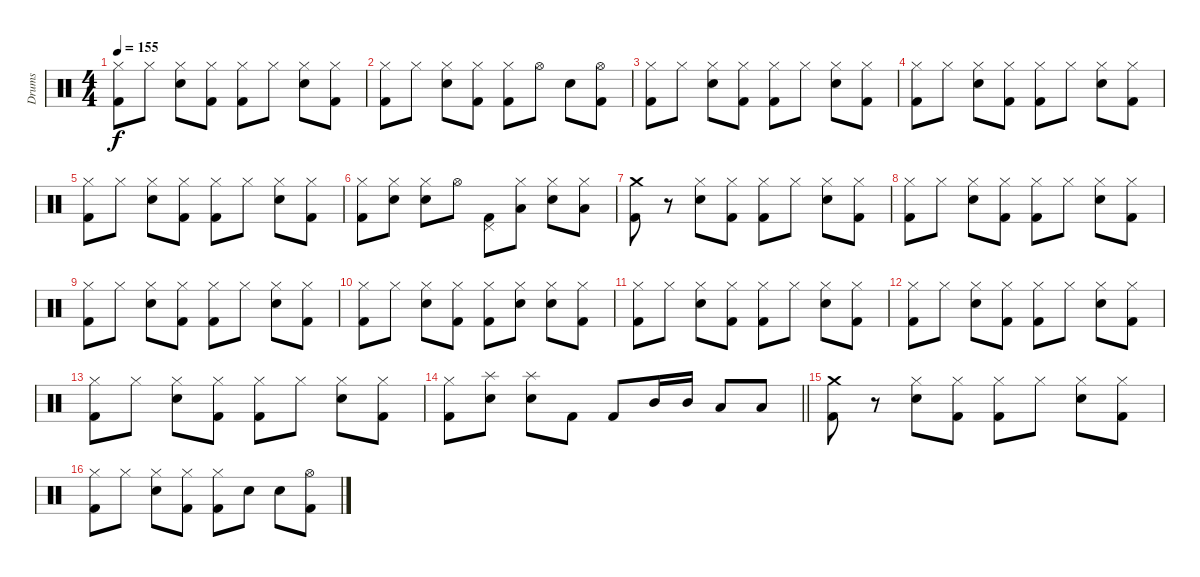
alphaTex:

\track ("Drums" "Drums") {instrument percussion}
\staff {score}
\articulation defaults
\ts (4 4)
\tempo 155
\clef neutral
\ks c
("Hi-Hat (closed)" "Kick (hit) 2").8{dy f} "Hi-Hat (closed)".8 ("Hi-Hat (closed)" "Snare (hit) 2").8 ("Hi-Hat (closed)" "Kick (hit) 2").8 ("Hi-Hat (closed)" "Kick (hit) 2").8 "Hi-Hat (closed)".8 ("Hi-Hat (closed)" "Snare (hit) 2").8 ("Hi-Hat (closed)" "Kick (hit) 2").8 |
("Hi-Hat (closed)" "Kick (hit) 2").8 "Hi-Hat (closed)".8 ("Hi-Hat (closed)" "Snare (hit) 2").8 ("Hi-Hat (closed)" "Kick (hit) 2").8 ("Hi-Hat (closed)" "Kick (hit) 2").8 "Hi-Hat (open)".8 "Snare (hit) 2".8 ("Hi-Hat (open)" "Kick (hit) 2").8 |
("Hi-Hat (closed)" "Kick (hit) 2").8 "Hi-Hat (closed)".8 ("Hi-Hat (closed)" "Snare (hit) 2").8 ("Hi-Hat (closed)" "Kick (hit) 2").8 ("Hi-Hat (closed)" "Kick (hit) 2").8 "Hi-Hat (closed)".8 ("Hi-Hat (closed)" "Snare (hit) 2").8 ("Hi-Hat (closed)" "Kick (hit) 2").8 |
("Hi-Hat (closed)" "Kick (hit) 2").8 "Hi-Hat (closed)".8 ("Hi-Hat (closed)" "Snare (hit) 2").8 ("Hi-Hat (closed)" "Kick (hit) 2").8 ("Hi-Hat (closed)" "Kick (hit) 2").8 "Hi-Hat (closed)".8 ("Hi-Hat (closed)" "Snare (hit) 2").8 ("Hi-Hat (closed)" "Kick (hit) 2").8 |
("Hi-Hat (closed)" "Kick (hit) 2").8 "Hi-Hat (closed)".8 ("Hi-Hat (closed)" "Snare (hit) 2").8 ("Hi-Hat (closed)" "Kick (hit) 2").8 ("Hi-Hat (closed)" "Kick (hit) 2").8 "Hi-Hat (closed)".8 ("Hi-Hat (closed)" "Snare (hit) 2").8 ("Hi-Hat (closed)" "Kick (hit) 2").8 |
("Hi-Hat (closed)" "Kick (hit) 2").8 ("Hi-Hat (closed)" "Snare (hit) 2").8 ("Hi-Hat (closed)" "Snare (hit) 2").8 "Hi-Hat (open)".8 ("Pedal Hi-Hat (hit)" "Kick (hit) 2").8 ("Hi-Hat (closed)" "Low Tom (hit)").8 ("Hi-Hat (closed)" "Snare (hit) 2").8 ("Hi-Hat (closed)" "Low Tom (hit)").8 |
("Crash medium (hit)" "Kick (hit) 2").8 r.8 ("Hi-Hat (closed)" "Snare (hit) 2").8 ("Hi-Hat (closed)" "Kick (hit) 2").8 ("Hi-Hat (closed)" "Kick (hit) 2").8 "Hi-Hat (closed)".8 ("Hi-Hat (closed)" "Snare (hit) 2").8 ("Hi-Hat (closed)" "Kick (hit) 2").8 |
("Hi-Hat (closed)" "Kick (hit) 2").8 "Hi-Hat (closed)".8 ("Hi-Hat (closed)" "Snare (hit) 2").8 ("Hi-Hat (closed)" "Kick (hit) 2").8 ("Hi-Hat (closed)" "Kick (hit) 2").8 "Hi-Hat (closed)".8 ("Hi-Hat (closed)" "Snare (hit) 2").8 ("Hi-Hat (closed)" "Kick (hit) 2").8 |
("Hi-Hat (closed)" "Kick (hit) 2").8 "Hi-Hat (closed)".8 ("Hi-Hat (closed)" "Snare (hit) 2").8 ("Hi-Hat (closed)" "Kick (hit) 2").8 ("Hi-Hat (closed)" "Kick (hit) 2").8 "Hi-Hat (closed)".8 ("Hi-Hat (closed)" "Snare (hit) 2").8 ("Hi-Hat (closed)" "Kick (hit) 2").8 |
("Hi-Hat (closed)" "Kick (hit) 2").8 "Hi-Hat (closed)".8 ("Hi-Hat (closed)" "Snare (hit) 2").8 ("Hi-Hat (closed)" "Kick (hit) 2").8 ("Hi-Hat (closed)" "Kick (hit) 2").8 ("Hi-Hat (closed)" "Hand Clap (hit)").8 ("Hi-Hat (closed)" "Snare (hit) 2").8 ("Hi-Hat (closed)" "Kick (hit) 2").8 |
("Hi-Hat (closed)" "Kick (hit) 2").8 "Hi-Hat (closed)".8 ("Hi-Hat (closed)" "Snare (hit) 2").8 ("Hi-Hat (closed)" "Kick (hit) 2").8 ("Hi-Hat (closed)" "Kick (hit) 2").8 "Hi-Hat (closed)".8 ("Hi-Hat (closed)" "Snare (hit) 2").8 ("Hi-Hat (closed)" "Kick (hit) 2").8 |
("Hi-Hat (closed)" "Kick (hit) 2").8 "Hi-Hat (closed)".8 ("Hi-Hat (closed)" "Snare (hit) 2").8 ("Hi-Hat (closed)" "Kick (hit) 2").8 ("Hi-Hat (closed)" "Kick (hit) 2").8 "Hi-Hat (closed)".8 ("Hi-Hat (closed)" "Snare (hit) 2").8 ("Hi-Hat (closed)" "Kick (hit) 2").8 |
("Hi-Hat (closed)" "Kick (hit) 2").8 "Hi-Hat (closed)".8 ("Hi-Hat (closed)" "Snare (hit) 2").8 ("Hi-Hat (closed)" "Kick (hit) 2").8 ("Hi-Hat (closed)" "Kick (hit) 2").8 "Hi-Hat (closed)".8 ("Hi-Hat (closed)" "Snare (hit) 2").8 ("Hi-Hat (closed)" "Kick (hit) 2").8 |
\barLineRight lightlight
("Hi-Hat (closed)" "Kick (hit) 2").8 ("Splash (hit)" "Snare (hit) 2").8 ("Splash (hit)" "Snare (hit) 2").8 "Kick (hit) 2".8 "Kick (hit) 2".8 "Mid Tom (hit)".16 "Mid Tom (hit)".16 "Low Tom (hit)".8 "Low Floor Tom (hit)".8 |
("Crash medium (hit)" "Kick (hit) 2").8 r.8 ("Hi-Hat (closed)" "Snare (hit) 2").8 ("Hi-Hat (closed)" "Kick (hit) 2").8 ("Hi-Hat (closed)" "Kick (hit) 2").8 "Hi-Hat (closed)".8 ("Hi-Hat (closed)" "Snare (hit) 2").8 ("Hi-Hat (closed)" "Kick (hit) 2").8 |
("Hi-Hat (closed)" "Kick (hit) 2").8 "Hi-Hat (closed)".8 ("Hi-Hat (closed)" "Snare (hit) 2").8 ("Hi-Hat (closed)" "Kick (hit) 2").8 ("Hi-Hat (closed)" "Kick (hit) 2").8 "Snare (hit) 2".8 "Snare (hit) 2".8 ("Hi-Hat (open)" "Kick (hit) 2").8
